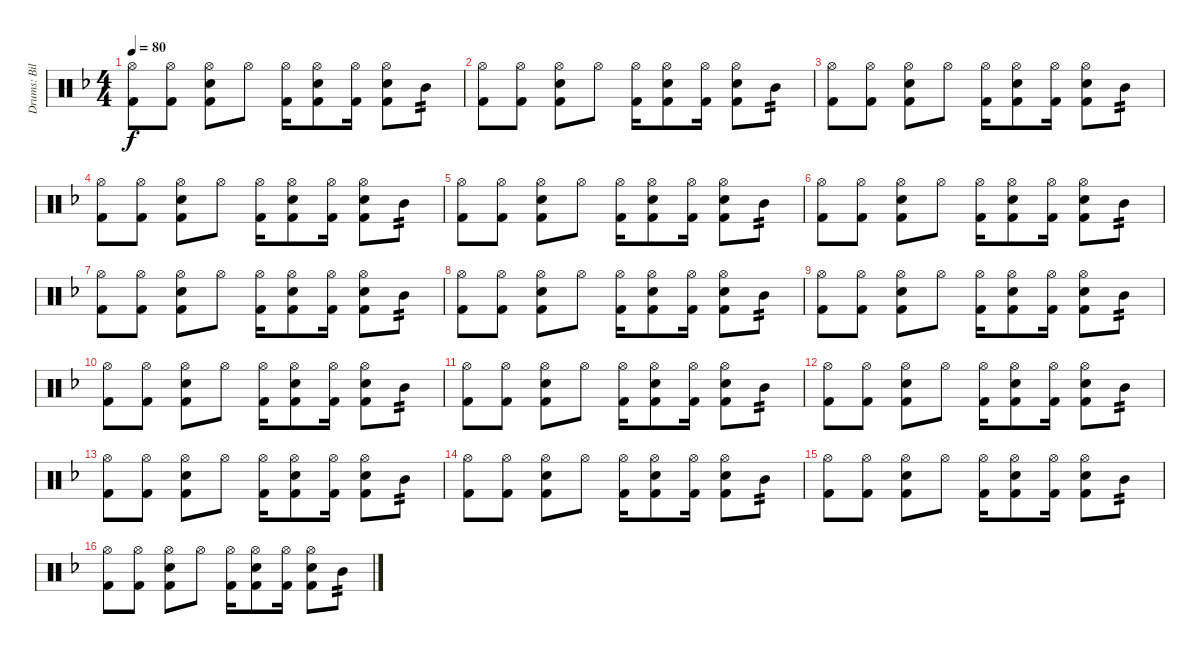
\track ("Drums: Bill" "Drums: Bil") {instrument percussion}
\staff {score}
\articulation defaults
\ts (4 4)
\tempo 80
\clef neutral
\ks f
("Hi-Hat (open)" "Kick (hit) 2").8{dy f} ("Hi-Hat (open)" "Kick (hit) 2").8 ("Hi-Hat (open)" "Snare (hit) 2" "Kick (hit) 2").8 "Hi-Hat (open)".8 ("Hi-Hat (open)" "Kick (hit) 2").16 ("Hi-Hat (open)" "Snare (hit) 2" "Kick (hit) 2").8 ("Hi-Hat (open)" "Kick (hit) 2").16 ("Hi-Hat (open)" "Snare (hit) 2" "Kick (hit) 2").8 "Mid Tom (hit)".8{tp 2} |
("Hi-Hat (open)" "Kick (hit) 2").8 ("Hi-Hat (open)" "Kick (hit) 2").8 ("Hi-Hat (open)" "Snare (hit) 2" "Kick (hit) 2").8 "Hi-Hat (open)".8 ("Hi-Hat (open)" "Kick (hit) 2").16 ("Hi-Hat (open)" "Snare (hit) 2" "Kick (hit) 2").8 ("Hi-Hat (open)" "Kick (hit) 2").16 ("Hi-Hat (open)" "Snare (hit) 2" "Kick (hit) 2").8 "Mid Tom (hit)".8{tp 2} |
("Hi-Hat (open)" "Kick (hit) 2").8 ("Hi-Hat (open)" "Kick (hit) 2").8 ("Hi-Hat (open)" "Snare (hit) 2" "Kick (hit) 2").8 "Hi-Hat (open)".8 ("Hi-Hat (open)" "Kick (hit) 2").16 ("Hi-Hat (open)" "Snare (hit) 2" "Kick (hit) 2").8 ("Hi-Hat (open)" "Kick (hit) 2").16 ("Hi-Hat (open)" "Snare (hit) 2" "Kick (hit) 2").8 "Mid Tom (hit)".8{tp 2} |
("Hi-Hat (open)" "Kick (hit) 2").8 ("Hi-Hat (open)" "Kick (hit) 2").8 ("Hi-Hat (open)" "Snare (hit) 2" "Kick (hit) 2").8 "Hi-Hat (open)".8 ("Hi-Hat (open)" "Kick (hit) 2").16 ("Hi-Hat (open)" "Snare (hit) 2" "Kick (hit) 2").8 ("Hi-Hat (open)" "Kick (hit) 2").16 ("Hi-Hat (open)" "Snare (hit) 2" "Kick (hit) 2").8 "Mid Tom (hit)".8{tp 2} |
("Hi-Hat (open)" "Kick (hit) 2").8 ("Hi-Hat (open)" "Kick (hit) 2").8 ("Hi-Hat (open)" "Snare (hit) 2" "Kick (hit) 2").8 "Hi-Hat (open)".8 ("Hi-Hat (open)" "Kick (hit) 2").16 ("Hi-Hat (open)" "Snare (hit) 2" "Kick (hit) 2").8 ("Hi-Hat (open)" "Kick (hit) 2").16 ("Hi-Hat (open)" "Snare (hit) 2" "Kick (hit) 2").8 "Mid Tom (hit)".8{tp 2} |
("Hi-Hat (open)" "Kick (hit) 2").8 ("Hi-Hat (open)" "Kick (hit) 2").8 ("Hi-Hat (open)" "Snare (hit) 2" "Kick (hit) 2").8 "Hi-Hat (open)".8 ("Hi-Hat (open)" "Kick (hit) 2").16 ("Hi-Hat (open)" "Snare (hit) 2" "Kick (hit) 2").8 ("Hi-Hat (open)" "Kick (hit) 2").16 ("Hi-Hat (open)" "Snare (hit) 2" "Kick (hit) 2").8 "Mid Tom (hit)".8{tp 2} |
("Hi-Hat (open)" "Kick (hit) 2").8 ("Hi-Hat (open)" "Kick (hit) 2").8 ("Hi-Hat (open)" "Snare (hit) 2" "Kick (hit) 2").8 "Hi-Hat (open)".8 ("Hi-Hat (open)" "Kick (hit) 2").16 ("Hi-Hat (open)" "Snare (hit) 2" "Kick (hit) 2").8 ("Hi-Hat (open)" "Kick (hit) 2").16 ("Hi-Hat (open)" "Snare (hit) 2" "Kick (hit) 2").8 "Mid Tom (hit)".8{tp 2} |
("Hi-Hat (open)" "Kick (hit) 2").8 ("Hi-Hat (open)" "Kick (hit) 2").8 ("Hi-Hat (open)" "Snare (hit) 2" "Kick (hit) 2").8 "Hi-Hat (open)".8 ("Hi-Hat (open)" "Kick (hit) 2").16 ("Hi-Hat (open)" "Snare (hit) 2" "Kick (hit) 2").8 ("Hi-Hat (open)" "Kick (hit) 2").16 ("Hi-Hat (open)" "Snare (hit) 2" "Kick (hit) 2").8 "Mid Tom (hit)".8{tp 2} |
("Hi-Hat (open)" "Kick (hit) 2").8 ("Hi-Hat (open)" "Kick (hit) 2").8 ("Hi-Hat (open)" "Snare (hit) 2" "Kick (hit) 2").8 "Hi-Hat (open)".8 ("Hi-Hat (open)" "Kick (hit) 2").16 ("Hi-Hat (open)" "Snare (hit) 2" "Kick (hit) 2").8 ("Hi-Hat (open)" "Kick (hit) 2").16 ("Hi-Hat (open)" "Snare (hit) 2" "Kick (hit) 2").8 "Mid Tom (hit)".8{tp 2} |
("Hi-Hat (open)" "Kick (hit) 2").8 ("Hi-Hat (open)" "Kick (hit) 2").8 ("Hi-Hat (open)" "Snare (hit) 2" "Kick (hit) 2").8 "Hi-Hat (open)".8 ("Hi-Hat (open)" "Kick (hit) 2").16 ("Hi-Hat (open)" "Snare (hit) 2" "Kick (hit) 2").8 ("Hi-Hat (open)" "Kick (hit) 2").16 ("Hi-Hat (open)" "Snare (hit) 2" "Kick (hit) 2").8 "Mid Tom (hit)".8{tp 2} |
("Hi-Hat (open)" "Kick (hit) 2").8 ("Hi-Hat (open)" "Kick (hit) 2").8 ("Hi-Hat (open)" "Snare (hit) 2" "Kick (hit) 2").8 "Hi-Hat (open)".8 ("Hi-Hat (open)" "Kick (hit) 2").16 ("Hi-Hat (open)" "Snare (hit) 2" "Kick (hit) 2").8 ("Hi-Hat (open)" "Kick (hit) 2").16 ("Hi-Hat (open)" "Snare (hit) 2" "Kick (hit) 2").8 "Mid Tom (hit)".8{tp 2} |
("Hi-Hat (open)" "Kick (hit) 2").8 ("Hi-Hat (open)" "Kick (hit) 2").8 ("Hi-Hat (open)" "Snare (hit) 2" "Kick (hit) 2").8 "Hi-Hat (open)".8 ("Hi-Hat (open)" "Kick (hit) 2").16 ("Hi-Hat (open)" "Snare (hit) 2" "Kick (hit) 2").8 ("Hi-Hat (open)" "Kick (hit) 2").16 ("Hi-Hat (open)" "Snare (hit) 2" "Kick (hit) 2").8 "Mid Tom (hit)".8{tp 2} |
("Hi-Hat (open)" "Kick (hit) 2").8 ("Hi-Hat (open)" "Kick (hit) 2").8 ("Hi-Hat (open)" "Snare (hit) 2" "Kick (hit) 2").8 "Hi-Hat (open)".8 ("Hi-Hat (open)" "Kick (hit) 2").16 ("Hi-Hat (open)" "Snare (hit) 2" "Kick (hit) 2").8 ("Hi-Hat (open)" "Kick (hit) 2").16 ("Hi-Hat (open)" "Snare (hit) 2" "Kick (hit) 2").8 "Mid Tom (hit)".8{tp 2} |
("Hi-Hat (open)" "Kick (hit) 2").8 ("Hi-Hat (open)" "Kick (hit) 2").8 ("Hi-Hat (open)" "Snare (hit) 2" "Kick (hit) 2").8 "Hi-Hat (open)".8 ("Hi-Hat (open)" "Kick (hit) 2").16 ("Hi-Hat (open)" "Snare (hit) 2" "Kick (hit) 2").8 ("Hi-Hat (open)" "Kick (hit) 2").16 ("Hi-Hat (open)" "Snare (hit) 2" "Kick (hit) 2").8 "Mid Tom (hit)".8{tp 2} |
("Hi-Hat (open)" "Kick (hit) 2").8 ("Hi-Hat (open)" "Kick (hit) 2").8 ("Hi-Hat (open)" "Snare (hit) 2" "Kick (hit) 2").8 "Hi-Hat (open)".8 ("Hi-Hat (open)" "Kick (hit) 2").16 ("Hi-Hat (open)" "Snare (hit) 2" "Kick (hit) 2").8 ("Hi-Hat (open)" "Kick (hit) 2").16 ("Hi-Hat (open)" "Snare (hit) 2" "Kick (hit) 2").8 "Mid Tom (hit)".8{tp 2} |
("Hi-Hat (open)" "Kick (hit) 2").8 ("Hi-Hat (open)" "Kick (hit) 2").8 ("Hi-Hat (open)" "Snare (hit) 2" "Kick (hit) 2").8 "Hi-Hat (open)".8 ("Hi-Hat (open)" "Kick (hit) 2").16 ("Hi-Hat (open)" "Snare (hit) 2" "Kick (hit) 2").8 ("Hi-Hat (open)" "Kick (hit) 2").16 ("Hi-Hat (open)" "Snare (hit) 2" "Kick (hit) 2").8 "Mid Tom (hit)".8{tp 2}
